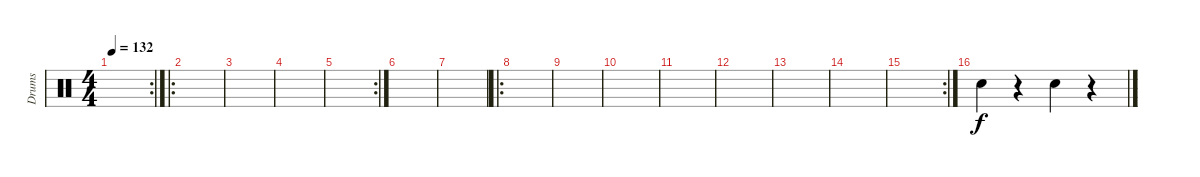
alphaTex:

\track ("Drums" "Drums") {instrument percussion}
\staff {score}
\articulation defaults
\rc 2
\ts (4 4)
\tempo 132
\clef neutral
\ks c
|
\ro
|
|
|
\rc 2
|
|
|
\ro
|
|
|
|
|
|
|
\rc 2
|
"Electric Snare (hit)".4 r.4 "Electric Snare (hit)".4 r.4
